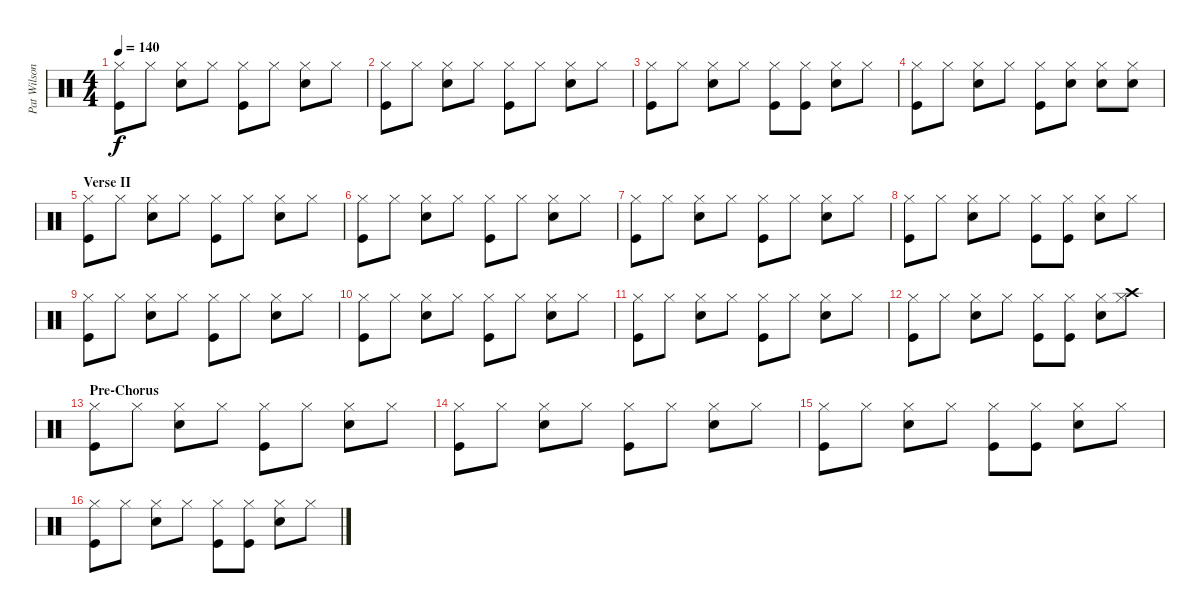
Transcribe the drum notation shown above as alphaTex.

\track ("Pat Wilson " "Pat Wilson") {instrument percussion}
\staff {score}
\articulation defaults
\ts (4 4)
\tempo 140
\clef neutral
\ks c
("Kick (hit)" "Hi-Hat (closed)").8{dy f} "Hi-Hat (closed)".8 ("Snare (hit) 2" "Hi-Hat (closed)").8 "Hi-Hat (closed)".8 ("Kick (hit)" "Hi-Hat (closed)").8 "Hi-Hat (closed)".8 ("Snare (hit) 2" "Hi-Hat (closed)").8 "Hi-Hat (closed)".8 |
("Kick (hit)" "Hi-Hat (closed)").8 "Hi-Hat (closed)".8 ("Snare (hit) 2" "Hi-Hat (closed)").8 "Hi-Hat (closed)".8 ("Kick (hit)" "Hi-Hat (closed)").8 "Hi-Hat (closed)".8 ("Snare (hit) 2" "Hi-Hat (closed)").8 "Hi-Hat (closed)".8 |
("Kick (hit)" "Hi-Hat (closed)").8 "Hi-Hat (closed)".8 ("Snare (hit) 2" "Hi-Hat (closed)").8 "Hi-Hat (closed)".8 ("Kick (hit)" "Hi-Hat (closed)").8 ("Kick (hit)" "Hi-Hat (closed)").8 ("Snare (hit) 2" "Hi-Hat (closed)").8 "Hi-Hat (closed)".8 |
("Kick (hit)" "Hi-Hat (closed)").8 "Hi-Hat (closed)".8 ("Snare (hit) 2" "Hi-Hat (closed)").8 "Hi-Hat (closed)".8 ("Kick (hit)" "Hi-Hat (closed)").8 ("Snare (hit) 2" "Hi-Hat (closed)").8 ("Snare (hit) 2" "Hi-Hat (closed)").8 ("Snare (hit) 2" "Hi-Hat (closed)").8 |
\section ("" "Verse II")
("Kick (hit)" "Hi-Hat (closed)").8 "Hi-Hat (closed)".8 ("Snare (hit) 2" "Hi-Hat (closed)").8 "Hi-Hat (closed)".8 ("Kick (hit)" "Hi-Hat (closed)").8 "Hi-Hat (closed)".8 ("Snare (hit) 2" "Hi-Hat (closed)").8 "Hi-Hat (closed)".8 |
("Kick (hit)" "Hi-Hat (closed)").8 "Hi-Hat (closed)".8 ("Snare (hit) 2" "Hi-Hat (closed)").8 "Hi-Hat (closed)".8 ("Kick (hit)" "Hi-Hat (closed)").8 "Hi-Hat (closed)".8 ("Snare (hit) 2" "Hi-Hat (closed)").8 "Hi-Hat (closed)".8 |
("Kick (hit)" "Hi-Hat (closed)").8 "Hi-Hat (closed)".8 ("Snare (hit) 2" "Hi-Hat (closed)").8 "Hi-Hat (closed)".8 ("Kick (hit)" "Hi-Hat (closed)").8 "Hi-Hat (closed)".8 ("Snare (hit) 2" "Hi-Hat (closed)").8 "Hi-Hat (closed)".8 |
("Kick (hit)" "Hi-Hat (closed)").8 "Hi-Hat (closed)".8 ("Snare (hit) 2" "Hi-Hat (closed)").8 "Hi-Hat (closed)".8 ("Kick (hit)" "Hi-Hat (closed)").8 ("Kick (hit)" "Hi-Hat (closed)").8 ("Snare (hit) 2" "Hi-Hat (closed)").8 "Hi-Hat (closed)".8 |
("Kick (hit)" "Hi-Hat (closed)").8 "Hi-Hat (closed)".8 ("Snare (hit) 2" "Hi-Hat (closed)").8 "Hi-Hat (closed)".8 ("Kick (hit)" "Hi-Hat (closed)").8 "Hi-Hat (closed)".8 ("Snare (hit) 2" "Hi-Hat (closed)").8 "Hi-Hat (closed)".8 |
("Kick (hit)" "Hi-Hat (closed)").8 "Hi-Hat (closed)".8 ("Snare (hit) 2" "Hi-Hat (closed)").8 "Hi-Hat (closed)".8 ("Kick (hit)" "Hi-Hat (closed)").8 "Hi-Hat (closed)".8 ("Snare (hit) 2" "Hi-Hat (closed)").8 "Hi-Hat (closed)".8 |
("Kick (hit)" "Hi-Hat (closed)").8 "Hi-Hat (closed)".8 ("Snare (hit) 2" "Hi-Hat (closed)").8 "Hi-Hat (closed)".8 ("Kick (hit)" "Hi-Hat (closed)").8 "Hi-Hat (closed)".8 ("Snare (hit) 2" "Hi-Hat (closed)").8 "Hi-Hat (closed)".8 |
("Kick (hit)" "Hi-Hat (closed)").8 "Hi-Hat (closed)".8 ("Snare (hit) 2" "Hi-Hat (closed)").8 "Hi-Hat (closed)".8 ("Kick (hit)" "Hi-Hat (closed)").8 ("Kick (hit)" "Hi-Hat (closed)").8 ("Snare (hit) 2" "Hi-Hat (closed)").8 ("Crash high (hit)" "Hi-Hat (closed)").8 |
\section ("" "Pre-Chorus")
("Kick (hit)" "Hi-Hat (closed)").8 "Hi-Hat (closed)".8 ("Snare (hit) 2" "Hi-Hat (closed)").8 "Hi-Hat (closed)".8 ("Kick (hit)" "Hi-Hat (closed)").8 "Hi-Hat (closed)".8 ("Snare (hit) 2" "Hi-Hat (closed)").8 "Hi-Hat (closed)".8 |
("Kick (hit)" "Hi-Hat (closed)").8 "Hi-Hat (closed)".8 ("Snare (hit) 2" "Hi-Hat (closed)").8 "Hi-Hat (closed)".8 ("Kick (hit)" "Hi-Hat (closed)").8 "Hi-Hat (closed)".8 ("Snare (hit) 2" "Hi-Hat (closed)").8 "Hi-Hat (closed)".8 |
("Kick (hit)" "Hi-Hat (closed)").8 "Hi-Hat (closed)".8 ("Snare (hit) 2" "Hi-Hat (closed)").8 "Hi-Hat (closed)".8 ("Kick (hit)" "Hi-Hat (closed)").8 ("Kick (hit)" "Hi-Hat (closed)").8 ("Snare (hit) 2" "Hi-Hat (closed)").8 "Hi-Hat (closed)".8 |
("Kick (hit)" "Hi-Hat (closed)").8 "Hi-Hat (closed)".8 ("Snare (hit) 2" "Hi-Hat (closed)").8 "Hi-Hat (closed)".8 ("Kick (hit)" "Hi-Hat (closed)").8 ("Kick (hit)" "Hi-Hat (closed)").8 ("Snare (hit) 2" "Hi-Hat (closed)").8 "Hi-Hat (closed)".8
